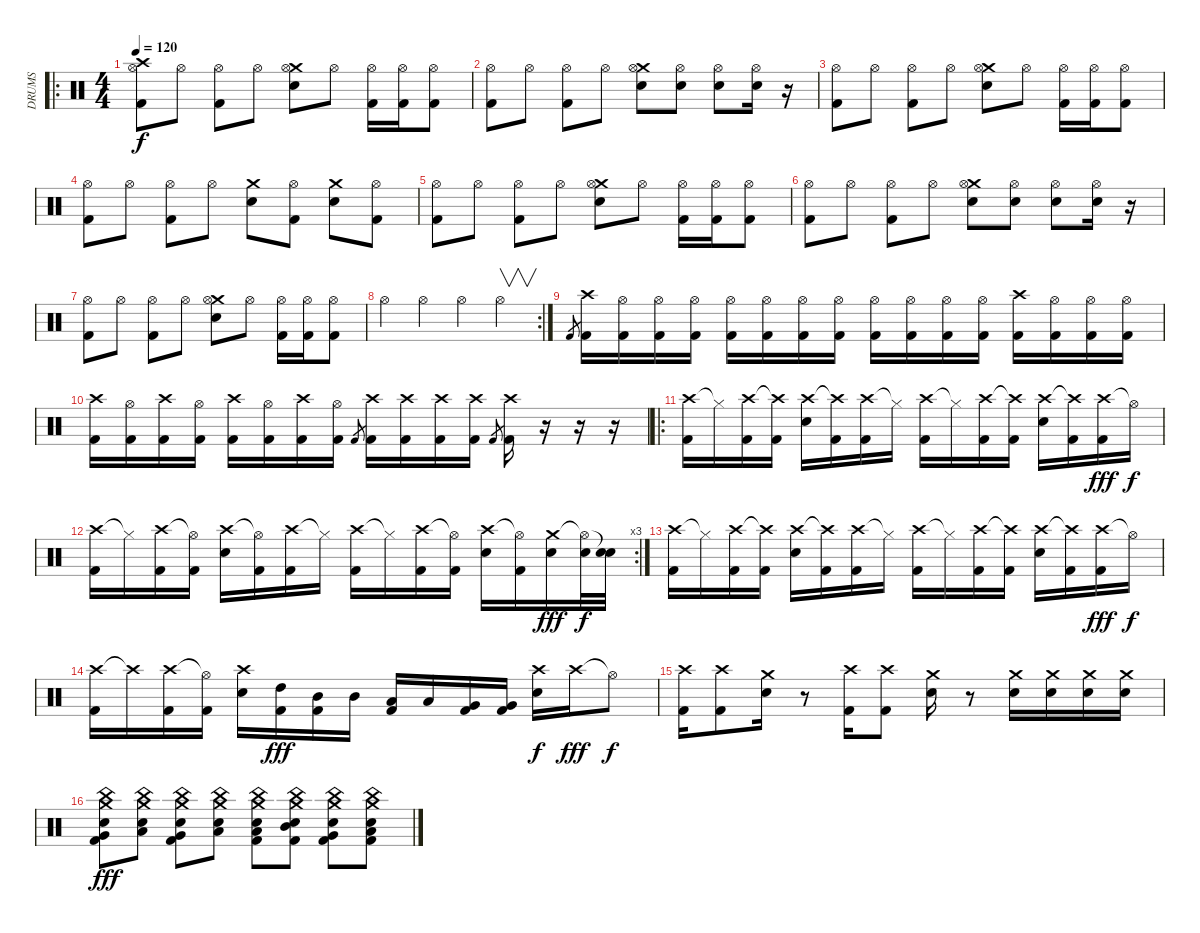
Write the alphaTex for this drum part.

\track ("DRUMS" "DRUMS") {instrument percussion}
\staff {score}
\articulation defaults
\ro
\ts (4 4)
\tempo 120
\clef neutral
\ks c
("Crash high (hit)" "Kick (hit) 2" "Hi-Hat (open)").8{dy f} "Hi-Hat (open)".8 ("Kick (hit) 2" "Hi-Hat (open)").8 "Hi-Hat (open)".8 ("Crash medium (hit)" "Electric Snare (hit)" "Hi-Hat (open)").8 "Hi-Hat (open)".8 ("Kick (hit) 2" "Hi-Hat (open)").16 ("Kick (hit) 2" "Hi-Hat (open)").16 ("Kick (hit) 2" "Hi-Hat (open)").8 |
("Kick (hit) 2" "Hi-Hat (open)").8 "Hi-Hat (open)".8 ("Kick (hit) 2" "Hi-Hat (open)").8 "Hi-Hat (open)".8 ("Crash medium (hit)" "Electric Snare (hit)" "Hi-Hat (open)").8 ("Electric Snare (hit)" "Hi-Hat (open)").8 ("Electric Snare (hit)" "Hi-Hat (open)").8 ("Electric Snare (hit)" "Hi-Hat (open)").16 r.16 |
("Kick (hit) 2" "Hi-Hat (open)").8 "Hi-Hat (open)".8 ("Kick (hit) 2" "Hi-Hat (open)").8 "Hi-Hat (open)".8 ("Crash medium (hit)" "Electric Snare (hit)" "Hi-Hat (open)").8 "Hi-Hat (open)".8 ("Kick (hit) 2" "Hi-Hat (open)").16 ("Kick (hit) 2" "Hi-Hat (open)").16 ("Kick (hit) 2" "Hi-Hat (open)").8 |
("Kick (hit) 2" "Hi-Hat (open)").8 "Hi-Hat (open)".8 ("Kick (hit) 2" "Hi-Hat (open)").8 "Hi-Hat (open)".8 ("Crash medium (hit)" "Electric Snare (hit)").8 ("Kick (hit) 2" "Hi-Hat (open)").8 ("Crash medium (hit)" "Electric Snare (hit)").8 ("Kick (hit) 2" "Hi-Hat (open)").8 |
("Kick (hit) 2" "Hi-Hat (open)").8 "Hi-Hat (open)".8 ("Kick (hit) 2" "Hi-Hat (open)").8 "Hi-Hat (open)".8 ("Crash medium (hit)" "Electric Snare (hit)" "Hi-Hat (open)").8 "Hi-Hat (open)".8 ("Kick (hit) 2" "Hi-Hat (open)").16 ("Kick (hit) 2" "Hi-Hat (open)").16 ("Kick (hit) 2" "Hi-Hat (open)").8 |
("Kick (hit) 2" "Hi-Hat (open)").8 "Hi-Hat (open)".8 ("Kick (hit) 2" "Hi-Hat (open)").8 "Hi-Hat (open)".8 ("Crash medium (hit)" "Electric Snare (hit)" "Hi-Hat (open)").8 ("Electric Snare (hit)" "Hi-Hat (open)").8 ("Electric Snare (hit)" "Hi-Hat (open)").8 ("Electric Snare (hit)" "Hi-Hat (open)").16 r.16 |
("Kick (hit) 2" "Hi-Hat (open)").8 "Hi-Hat (open)".8 ("Kick (hit) 2" "Hi-Hat (open)").8 "Hi-Hat (open)".8 ("Crash medium (hit)" "Electric Snare (hit)" "Hi-Hat (open)").8 "Hi-Hat (open)".8 ("Kick (hit) 2" "Hi-Hat (open)").16 ("Kick (hit) 2" "Hi-Hat (open)").16 ("Kick (hit) 2" "Hi-Hat (open)").8 |
\rc 2 "Hi-Hat (open)".4 "Hi-Hat (open)".4 "Hi-Hat (open)".4 "Hi-Hat (open)".4{v}
|
"Kick (hit) 2".8{gr} ("Crash high (hit)" "Kick (hit) 2").16 ("Hi-Hat (open)" "Kick (hit) 2").16 ("Hi-Hat (open)" "Kick (hit) 2").16 ("Hi-Hat (open)" "Kick (hit) 2").16 ("Hi-Hat (open)" "Kick (hit) 2").16 ("Hi-Hat (open)" "Kick (hit) 2").16 ("Hi-Hat (open)" "Kick (hit) 2").16 ("Hi-Hat (open)" "Kick (hit) 2").16 ("Hi-Hat (open)" "Kick (hit) 2").16 ("Hi-Hat (open)" "Kick (hit) 2").16 ("Hi-Hat (open)" "Kick (hit) 2").16 ("Hi-Hat (open)" "Kick (hit) 2").16 ("Crash high (hit)" "Kick (hit) 2").16 ("Hi-Hat (open)" "Kick (hit) 2").16 ("Hi-Hat (open)" "Kick (hit) 2").16 ("Hi-Hat (open)" "Kick (hit) 2").16 |
("Crash high (hit)" "Kick (hit) 2").16 ("Hi-Hat (open)" "Kick (hit) 2").16 ("Crash high (hit)" "Kick (hit) 2").16 ("Hi-Hat (open)" "Kick (hit) 2").16 ("Crash high (hit)" "Kick (hit) 2").16 ("Hi-Hat (open)" "Kick (hit) 2").16 ("Crash high (hit)" "Kick (hit) 2").16 ("Hi-Hat (open)" "Kick (hit) 2").16 "Kick (hit) 2".8{gr} ("Crash high (hit)" "Kick (hit) 2").16 ("Crash high (hit)" "Kick (hit) 2").16 ("Crash high (hit)" "Kick (hit) 2").16 ("Crash high (hit)" "Kick (hit) 2").16 "Kick (hit) 2".8{gr} ("Crash high (hit)" "Kick (hit) 2").16 r.16 r.16 r.16 |
\ro
("Crash high (hit)" "Kick (hit) 2").16 "Hi-Hat (closed)"{t}.16 ("Crash high (hit)" "Kick (hit) 2").16 ("Crash high (hit)"{t} "Kick (hit) 2").16 ("Crash high (hit)" "Electric Snare (hit)").16 ("Crash high (hit)"{t} "Kick (hit) 2").16 ("Crash high (hit)" "Kick (hit) 2").16 "Hi-Hat (closed)"{t}.16 ("Crash high (hit)" "Kick (hit) 2").16 "Hi-Hat (closed)"{t}.16 ("Crash high (hit)" "Kick (hit) 2").16 ("Crash high (hit)"{t} "Kick (hit) 2").16 ("Crash high (hit)" "Electric Snare (hit)").16 ("Crash high (hit)"{t} "Kick (hit) 2").16 ("Crash high (hit)" "Kick (hit) 2").16{dy fff} "Hi-Hat (open)"{t}.16{dy f} |
\rc 3
("Crash high (hit)" "Kick (hit) 2").16 "Hi-Hat (closed)"{t}.16 ("Crash high (hit)" "Kick (hit) 2").16 ("Hi-Hat (open)"{t} "Kick (hit) 2").16 ("Crash high (hit)" "Electric Snare (hit)").16 ("Hi-Hat (open)"{t} "Kick (hit) 2").16 ("Crash high (hit)" "Kick (hit) 2").16 "Hi-Hat (closed)"{t}.16 ("Crash high (hit)" "Kick (hit) 2").16 "Hi-Hat (closed)"{t}.16 ("Crash high (hit)" "Kick (hit) 2").16 ("Hi-Hat (open)"{t} "Kick (hit) 2").16 ("Crash high (hit)" "Electric Snare (hit)").16 ("Hi-Hat (open)"{t} "Kick (hit) 2").16 ("Crash medium (hit)" "Electric Snare (hit)").16{dy fff} ("Hi-Hat (open)"{t} "Electric Snare (hit)").32{dy f} ("Snare (hit)"{t} "Electric Snare (hit)").32 |
("Crash high (hit)" "Kick (hit) 2").16 "Hi-Hat (closed)"{t}.16 ("Crash high (hit)" "Kick (hit) 2").16 ("Crash high (hit)"{t} "Kick (hit) 2").16 ("Crash high (hit)" "Electric Snare (hit)").16 ("Crash high (hit)"{t} "Kick (hit) 2").16 ("Crash high (hit)" "Kick (hit) 2").16 "Hi-Hat (closed)"{t}.16 ("Crash high (hit)" "Kick (hit) 2").16 "Hi-Hat (closed)"{t}.16 ("Crash high (hit)" "Kick (hit) 2").16 ("Crash high (hit)"{t} "Kick (hit) 2").16 ("Crash high (hit)" "Electric Snare (hit)").16 ("Crash high (hit)"{t} "Kick (hit) 2").16 ("Crash high (hit)" "Kick (hit) 2").16{dy fff} "Hi-Hat (open)"{t}.16{dy f} |
("Crash high (hit)" "Kick (hit) 2").16 "Crash high (hit)"{t}.16 ("Crash high (hit)" "Kick (hit) 2").16 ("Hi-Hat (open)"{t} "Kick (hit) 2").16 ("Crash high (hit)" "Electric Snare (hit)").16 ("High Tom (hit)" "Kick (hit) 2").16{dy fff} ("Mid Tom (hit)" "Kick (hit) 2").16 "Mid Tom (hit)".16 ("Low Tom (hit)" "Kick (hit) 2").16 "Low Tom (hit)".16 ("Very Low Tom (hit)" "Kick (hit) 2").16 ("Very Low Tom (hit)" "Kick (hit) 2").16 ("Crash high (hit)" "Electric Snare (hit)").16{dy f} "Crash high (hit)".16{dy fff} "Hi-Hat (open)"{t}.8{dy f} |
("Crash high (hit)" "Kick (hit) 2").16 ("Crash high (hit)" "Kick (hit) 2").8 ("Crash medium (hit)" "Electric Snare (hit)").16 r.8 ("Crash high (hit)" "Kick (hit) 2").16 ("Crash high (hit)" "Kick (hit) 2").8 ("Crash medium (hit)" "Electric Snare (hit)").16 r.8 ("Crash medium (hit)" "Electric Snare (hit)").16 ("Crash medium (hit)" "Electric Snare (hit)").16 ("Crash medium (hit)" "Electric Snare (hit)").16 ("Crash medium (hit)" "Electric Snare (hit)").16 |
("China (hit)" "Crash medium (hit)" "Kick (hit) 2" "Very Low Tom (hit)" "Electric Snare (hit)").8{dy fff} ("China (hit)" "Crash medium (hit)" "Low Tom (hit)" "Electric Snare (hit)").8 ("China (hit)" "Crash medium (hit)" "Kick (hit) 2" "Very Low Tom (hit)" "Electric Snare (hit)").8 ("China (hit)" "Crash medium (hit)" "Low Floor Tom (hit)" "Electric Snare (hit)").8 ("China (hit)" "Crash medium (hit)" "Kick (hit) 2" "Low Tom (hit)" "Electric Snare (hit)").8 ("China (hit)" "Crash medium (hit)" "Kick (hit) 2" "Mid Tom (hit)" "Electric Snare (hit)").8 ("China (hit)" "Crash medium (hit)" "Kick (hit) 2" "Very Low Tom (hit)" "Electric Snare (hit)").8 ("China (hit)" "Crash medium (hit)" "Kick (hit) 2" "Low Floor Tom (hit)" "Electric Snare (hit)").8
